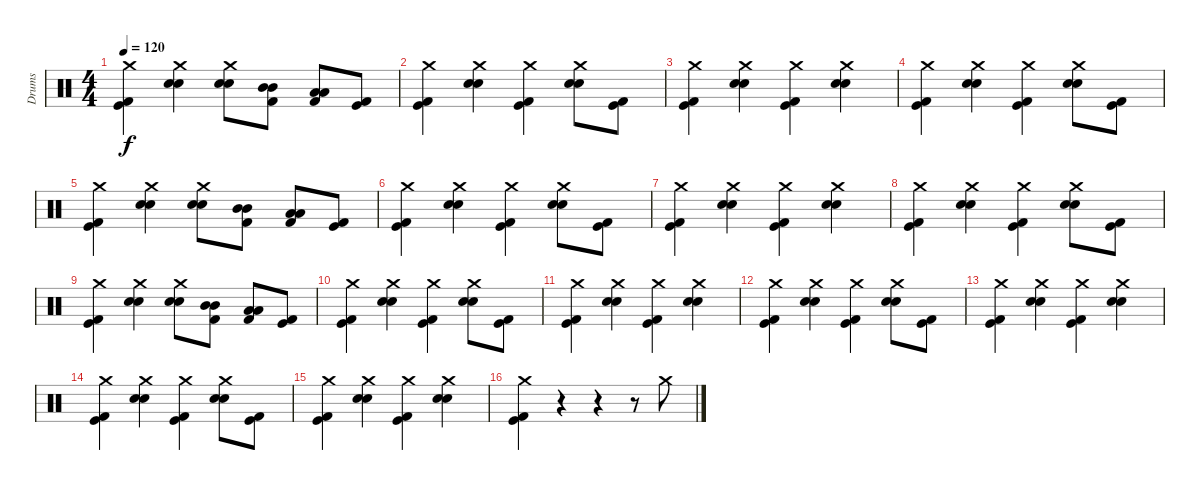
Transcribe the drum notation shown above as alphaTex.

\track ("Drums" "Drums") {instrument percussion}
\staff {score}
\articulation defaults
\ts (4 4)
\tempo 120
\clef neutral
\ks c
("Crash medium (hit)" "Kick (hit)" "Kick (hit) 2").4{dy f} ("Crash medium (hit)" "Electric Snare (hit)" "Electric Snare (hit)").4 ("Crash medium (hit)" "Electric Snare (hit)" "Electric Snare (hit)").8 ("Mid Tom (hit)" "Mid Tom (hit)" "Kick (hit) 2").8 ("Low Tom (hit)" "Low Tom (hit)" "Kick (hit) 2").8 ("Kick (hit)" "Kick (hit) 2").8 |
("Crash medium (hit)" "Kick (hit)" "Kick (hit) 2").4 ("Crash medium (hit)" "Electric Snare (hit)" "Electric Snare (hit)").4 ("Crash medium (hit)" "Kick (hit)" "Kick (hit) 2").4 ("Crash medium (hit)" "Electric Snare (hit)" "Electric Snare (hit)").8 ("Kick (hit)" "Kick (hit) 2").8 |
("Crash medium (hit)" "Kick (hit)" "Kick (hit) 2").4 ("Crash medium (hit)" "Electric Snare (hit)" "Electric Snare (hit)").4 ("Crash medium (hit)" "Kick (hit)" "Kick (hit) 2").4 ("Crash medium (hit)" "Electric Snare (hit)" "Electric Snare (hit)").4 |
("Crash medium (hit)" "Kick (hit)" "Kick (hit) 2").4 ("Crash medium (hit)" "Electric Snare (hit)" "Electric Snare (hit)").4 ("Crash medium (hit)" "Kick (hit)" "Kick (hit) 2").4 ("Crash medium (hit)" "Electric Snare (hit)" "Electric Snare (hit)").8 ("Kick (hit)" "Kick (hit) 2").8 |
("Crash medium (hit)" "Kick (hit)" "Kick (hit) 2").4 ("Crash medium (hit)" "Electric Snare (hit)" "Electric Snare (hit)").4 ("Crash medium (hit)" "Electric Snare (hit)" "Electric Snare (hit)").8 ("Mid Tom (hit)" "Mid Tom (hit)" "Kick (hit) 2").8 ("Low Tom (hit)" "Low Tom (hit)" "Kick (hit) 2").8 ("Kick (hit)" "Kick (hit) 2").8 |
("Crash medium (hit)" "Kick (hit)" "Kick (hit) 2").4 ("Crash medium (hit)" "Electric Snare (hit)" "Electric Snare (hit)").4 ("Crash medium (hit)" "Kick (hit)" "Kick (hit) 2").4 ("Crash medium (hit)" "Electric Snare (hit)" "Electric Snare (hit)").8 ("Kick (hit)" "Kick (hit) 2").8 |
("Crash medium (hit)" "Kick (hit)" "Kick (hit) 2").4 ("Crash medium (hit)" "Electric Snare (hit)" "Electric Snare (hit)").4 ("Crash medium (hit)" "Kick (hit)" "Kick (hit) 2").4 ("Crash medium (hit)" "Electric Snare (hit)" "Electric Snare (hit)").4 |
("Crash medium (hit)" "Kick (hit)" "Kick (hit) 2").4 ("Crash medium (hit)" "Electric Snare (hit)" "Electric Snare (hit)").4 ("Crash medium (hit)" "Kick (hit)" "Kick (hit) 2").4 ("Crash medium (hit)" "Electric Snare (hit)" "Electric Snare (hit)").8 ("Kick (hit)" "Kick (hit) 2").8 |
("Crash medium (hit)" "Kick (hit)" "Kick (hit) 2").4 ("Crash medium (hit)" "Electric Snare (hit)" "Electric Snare (hit)").4 ("Crash medium (hit)" "Electric Snare (hit)" "Electric Snare (hit)").8 ("Mid Tom (hit)" "Mid Tom (hit)" "Kick (hit) 2").8 ("Low Tom (hit)" "Low Tom (hit)" "Kick (hit) 2").8 ("Kick (hit)" "Kick (hit) 2").8 |
("Crash medium (hit)" "Kick (hit)" "Kick (hit) 2").4 ("Crash medium (hit)" "Electric Snare (hit)" "Electric Snare (hit)").4 ("Crash medium (hit)" "Kick (hit)" "Kick (hit) 2").4 ("Crash medium (hit)" "Electric Snare (hit)" "Electric Snare (hit)").8 ("Kick (hit)" "Kick (hit) 2").8 |
("Crash medium (hit)" "Kick (hit)" "Kick (hit) 2").4 ("Crash medium (hit)" "Electric Snare (hit)" "Electric Snare (hit)").4 ("Crash medium (hit)" "Kick (hit)" "Kick (hit) 2").4 ("Crash medium (hit)" "Electric Snare (hit)" "Electric Snare (hit)").4 |
("Crash medium (hit)" "Kick (hit)" "Kick (hit) 2").4 ("Crash medium (hit)" "Electric Snare (hit)" "Electric Snare (hit)").4 ("Crash medium (hit)" "Kick (hit)" "Kick (hit) 2").4 ("Crash medium (hit)" "Electric Snare (hit)" "Electric Snare (hit)").8 ("Kick (hit)" "Kick (hit) 2").8 |
("Crash medium (hit)" "Kick (hit)" "Kick (hit) 2").4 ("Crash medium (hit)" "Electric Snare (hit)" "Electric Snare (hit)").4 ("Crash medium (hit)" "Kick (hit)" "Kick (hit) 2").4 ("Crash medium (hit)" "Electric Snare (hit)" "Electric Snare (hit)").4 |
("Crash medium (hit)" "Kick (hit)" "Kick (hit) 2").4 ("Crash medium (hit)" "Electric Snare (hit)" "Electric Snare (hit)").4 ("Crash medium (hit)" "Kick (hit)" "Kick (hit) 2").4 ("Crash medium (hit)" "Electric Snare (hit)" "Electric Snare (hit)").8 ("Kick (hit)" "Kick (hit) 2").8 |
("Crash medium (hit)" "Kick (hit)" "Kick (hit) 2").4 ("Crash medium (hit)" "Electric Snare (hit)" "Electric Snare (hit)").4 ("Crash medium (hit)" "Kick (hit)" "Kick (hit) 2").4 ("Crash medium (hit)" "Electric Snare (hit)" "Electric Snare (hit)").4 |
("Crash medium (hit)" "Kick (hit)" "Kick (hit) 2").4 r.4 r.4 r.8 "Crash medium (hit)".8
